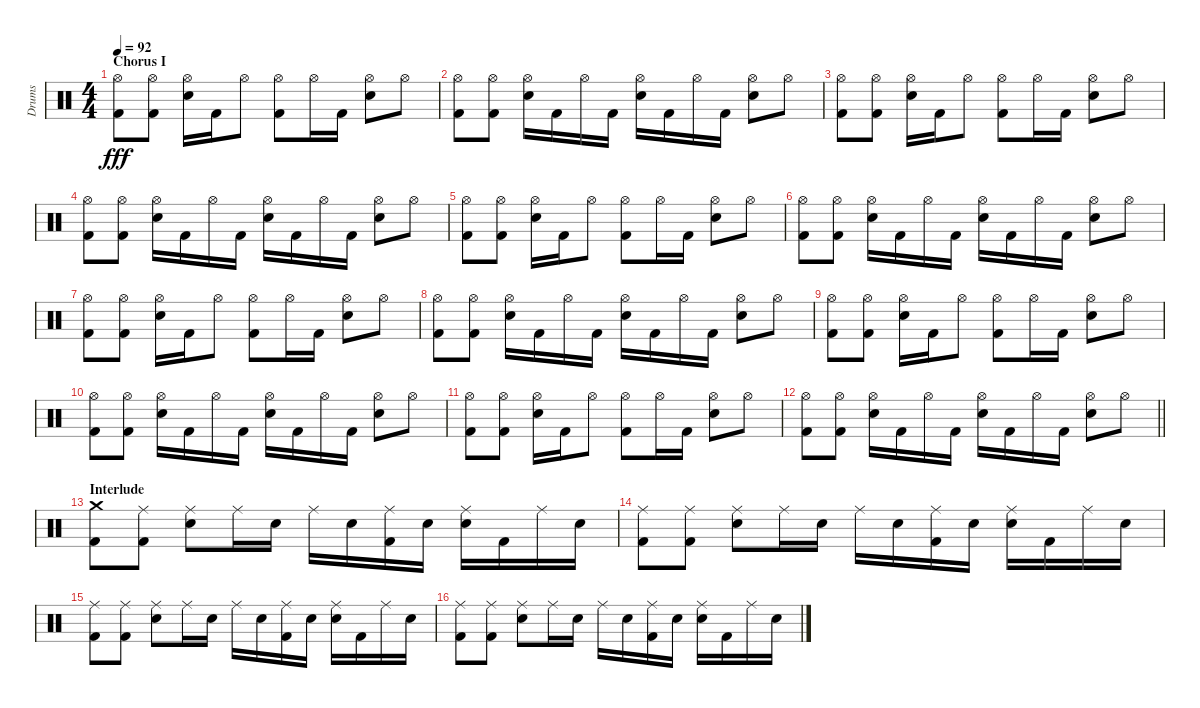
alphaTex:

\track ("Drums" "Drums") {instrument percussion}
\staff {score}
\articulation defaults
\ts (4 4)
\section ("" "Chorus I")
\tempo 92
\clef neutral
\ks c
("Hi-Hat (open)" "Kick (hit) 2").8{dy fff} ("Hi-Hat (open)" "Kick (hit) 2").8 ("Hi-Hat (open)" "Snare (hit) 2").16 "Kick (hit) 2".16 "Hi-Hat (open)".8 ("Hi-Hat (open)" "Kick (hit) 2").8 "Hi-Hat (open)".16 "Kick (hit) 2".16 ("Hi-Hat (open)" "Snare (hit) 2").8 "Hi-Hat (open)".8 |
("Hi-Hat (open)" "Kick (hit) 2").8 ("Hi-Hat (open)" "Kick (hit) 2").8 ("Hi-Hat (open)" "Snare (hit) 2").16 "Kick (hit) 2".16 "Hi-Hat (open)".16 "Kick (hit) 2".16 ("Hi-Hat (open)" "Snare (hit) 2").16 "Kick (hit) 2".16 "Hi-Hat (open)".16 "Kick (hit) 2".16 ("Hi-Hat (open)" "Snare (hit) 2").8 "Hi-Hat (open)".8 |
("Hi-Hat (open)" "Kick (hit) 2").8 ("Hi-Hat (open)" "Kick (hit) 2").8 ("Hi-Hat (open)" "Snare (hit) 2").16 "Kick (hit) 2".16 "Hi-Hat (open)".8 ("Hi-Hat (open)" "Kick (hit) 2").8 "Hi-Hat (open)".16 "Kick (hit) 2".16 ("Hi-Hat (open)" "Snare (hit) 2").8 "Hi-Hat (open)".8 |
("Hi-Hat (open)" "Kick (hit) 2").8 ("Hi-Hat (open)" "Kick (hit) 2").8 ("Hi-Hat (open)" "Snare (hit) 2").16 "Kick (hit) 2".16 "Hi-Hat (open)".16 "Kick (hit) 2".16 ("Hi-Hat (open)" "Snare (hit) 2").16 "Kick (hit) 2".16 "Hi-Hat (open)".16 "Kick (hit) 2".16 ("Hi-Hat (open)" "Snare (hit) 2").8 "Hi-Hat (open)".8 |
("Hi-Hat (open)" "Kick (hit) 2").8 ("Hi-Hat (open)" "Kick (hit) 2").8 ("Hi-Hat (open)" "Snare (hit) 2").16 "Kick (hit) 2".16 "Hi-Hat (open)".8 ("Hi-Hat (open)" "Kick (hit) 2").8 "Hi-Hat (open)".16 "Kick (hit) 2".16 ("Hi-Hat (open)" "Snare (hit) 2").8 "Hi-Hat (open)".8 |
("Hi-Hat (open)" "Kick (hit) 2").8 ("Hi-Hat (open)" "Kick (hit) 2").8 ("Hi-Hat (open)" "Snare (hit) 2").16 "Kick (hit) 2".16 "Hi-Hat (open)".16 "Kick (hit) 2".16 ("Hi-Hat (open)" "Snare (hit) 2").16 "Kick (hit) 2".16 "Hi-Hat (open)".16 "Kick (hit) 2".16 ("Hi-Hat (open)" "Snare (hit) 2").8 "Hi-Hat (open)".8 |
("Hi-Hat (open)" "Kick (hit) 2").8 ("Hi-Hat (open)" "Kick (hit) 2").8 ("Hi-Hat (open)" "Snare (hit) 2").16 "Kick (hit) 2".16 "Hi-Hat (open)".8 ("Hi-Hat (open)" "Kick (hit) 2").8 "Hi-Hat (open)".16 "Kick (hit) 2".16 ("Hi-Hat (open)" "Snare (hit) 2").8 "Hi-Hat (open)".8 |
("Hi-Hat (open)" "Kick (hit) 2").8 ("Hi-Hat (open)" "Kick (hit) 2").8 ("Hi-Hat (open)" "Snare (hit) 2").16 "Kick (hit) 2".16 "Hi-Hat (open)".16 "Kick (hit) 2".16 ("Hi-Hat (open)" "Snare (hit) 2").16 "Kick (hit) 2".16 "Hi-Hat (open)".16 "Kick (hit) 2".16 ("Hi-Hat (open)" "Snare (hit) 2").8 "Hi-Hat (open)".8 |
("Hi-Hat (open)" "Kick (hit) 2").8 ("Hi-Hat (open)" "Kick (hit) 2").8 ("Hi-Hat (open)" "Snare (hit) 2").16 "Kick (hit) 2".16 "Hi-Hat (open)".8 ("Hi-Hat (open)" "Kick (hit) 2").8 "Hi-Hat (open)".16 "Kick (hit) 2".16 ("Hi-Hat (open)" "Snare (hit) 2").8 "Hi-Hat (open)".8 |
("Hi-Hat (open)" "Kick (hit) 2").8 ("Hi-Hat (open)" "Kick (hit) 2").8 ("Hi-Hat (open)" "Snare (hit) 2").16 "Kick (hit) 2".16 "Hi-Hat (open)".16 "Kick (hit) 2".16 ("Hi-Hat (open)" "Snare (hit) 2").16 "Kick (hit) 2".16 "Hi-Hat (open)".16 "Kick (hit) 2".16 ("Hi-Hat (open)" "Snare (hit) 2").8 "Hi-Hat (open)".8 |
("Hi-Hat (open)" "Kick (hit) 2").8 ("Hi-Hat (open)" "Kick (hit) 2").8 ("Hi-Hat (open)" "Snare (hit) 2").16 "Kick (hit) 2".16 "Hi-Hat (open)".8 ("Hi-Hat (open)" "Kick (hit) 2").8 "Hi-Hat (open)".16 "Kick (hit) 2".16 ("Hi-Hat (open)" "Snare (hit) 2").8 "Hi-Hat (open)".8 |
\barLineRight lightlight
("Hi-Hat (open)" "Kick (hit) 2").8 ("Hi-Hat (open)" "Kick (hit) 2").8 ("Hi-Hat (open)" "Snare (hit) 2").16 "Kick (hit) 2".16 "Hi-Hat (open)".16 "Kick (hit) 2".16 ("Hi-Hat (open)" "Snare (hit) 2").16 "Kick (hit) 2".16 "Hi-Hat (open)".16 "Kick (hit) 2".16 ("Hi-Hat (open)" "Snare (hit) 2").8 "Hi-Hat (open)".8 |
\section ("" "Interlude")
("Crash medium (hit)" "Kick (hit) 2").8 ("Ride (middle)" "Kick (hit) 2").8 ("Ride (middle)" "Snare (hit) 2").8 "Ride (middle)".16 "Snare (hit) 2".16 "Ride (middle)".16 "Snare (hit) 2".16 ("Ride (middle)" "Kick (hit) 2").16 "Snare (hit) 2".16 ("Ride (middle)" "Snare (hit) 2").16 "Kick (hit) 2".16 "Ride (middle)".16 "Snare (hit) 2".16 |
("Ride (middle)" "Kick (hit) 2").8 ("Ride (middle)" "Kick (hit) 2").8 ("Ride (middle)" "Snare (hit) 2").8 "Ride (middle)".16 "Snare (hit) 2".16 "Ride (middle)".16 "Snare (hit) 2".16 ("Ride (middle)" "Kick (hit) 2").16 "Snare (hit) 2".16 ("Ride (middle)" "Snare (hit) 2").16 "Kick (hit) 2".16 "Ride (middle)".16 "Snare (hit) 2".16 |
("Ride (middle)" "Kick (hit) 2").8 ("Ride (middle)" "Kick (hit) 2").8 ("Ride (middle)" "Snare (hit) 2").8 "Ride (middle)".16 "Snare (hit) 2".16 "Ride (middle)".16 "Snare (hit) 2".16 ("Ride (middle)" "Kick (hit) 2").16 "Snare (hit) 2".16 ("Ride (middle)" "Snare (hit) 2").16 "Kick (hit) 2".16 "Ride (middle)".16 "Snare (hit) 2".16 |
("Ride (middle)" "Kick (hit) 2").8 ("Ride (middle)" "Kick (hit) 2").8 ("Ride (middle)" "Snare (hit) 2").8 "Ride (middle)".16 "Snare (hit) 2".16 "Ride (middle)".16 "Snare (hit) 2".16 ("Ride (middle)" "Kick (hit) 2").16 "Snare (hit) 2".16 ("Ride (middle)" "Snare (hit) 2").16 "Kick (hit) 2".16 "Ride (middle)".16 "Snare (hit) 2".16
